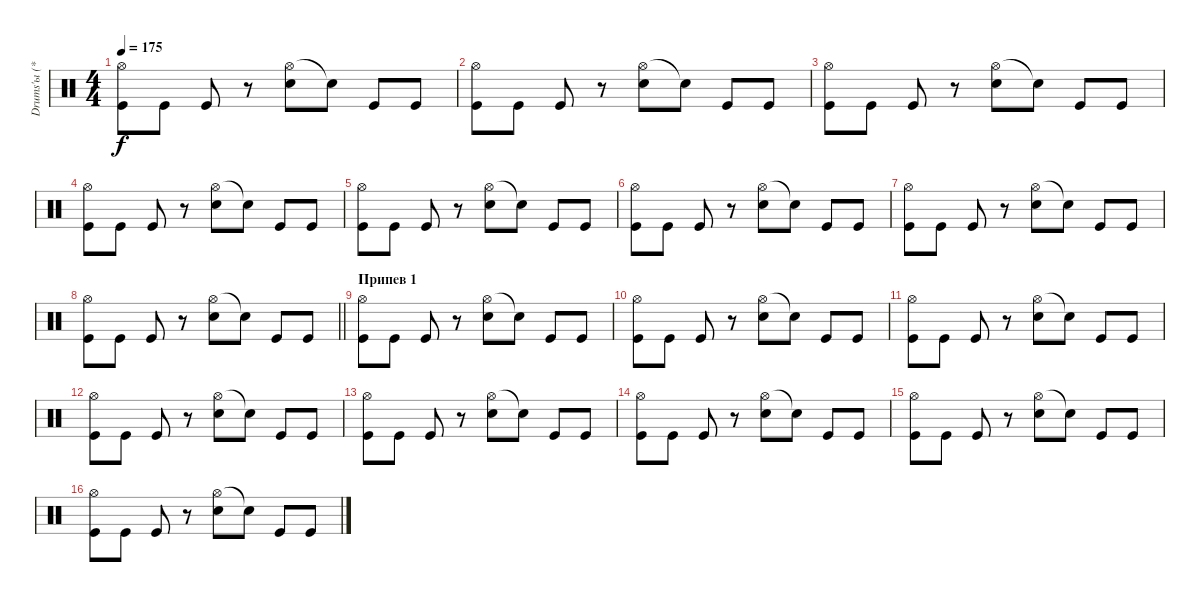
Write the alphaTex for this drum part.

\track ("Drums'ы (***)" "Drums'ы (*") {instrument percussion}
\staff {score}
\articulation defaults
\ts (4 4)
\tempo 175
\clef neutral
\ks c
("Hi-Hat (open)" "Kick (hit)").8{dy f} "Kick (hit)".8 "Kick (hit)".8 r.8 ("Hi-Hat (open)" "Electric Snare (hit)").8 "Snare (hit)"{t}.8 "Kick (hit)".8 "Kick (hit)".8 |
("Hi-Hat (open)" "Kick (hit)").8 "Kick (hit)".8 "Kick (hit)".8 r.8 ("Hi-Hat (open)" "Electric Snare (hit)").8 "Snare (hit)"{t}.8 "Kick (hit)".8 "Kick (hit)".8 |
("Hi-Hat (open)" "Kick (hit)").8 "Kick (hit)".8 "Kick (hit)".8 r.8 ("Hi-Hat (open)" "Electric Snare (hit)").8 "Snare (hit)"{t}.8 "Kick (hit)".8 "Kick (hit)".8 |
("Hi-Hat (open)" "Kick (hit)").8 "Kick (hit)".8 "Kick (hit)".8 r.8 ("Hi-Hat (open)" "Electric Snare (hit)").8 "Snare (hit)"{t}.8 "Kick (hit)".8 "Kick (hit)".8 |
("Hi-Hat (open)" "Kick (hit)").8 "Kick (hit)".8 "Kick (hit)".8 r.8 ("Hi-Hat (open)" "Electric Snare (hit)").8 "Snare (hit)"{t}.8 "Kick (hit)".8 "Kick (hit)".8 |
("Hi-Hat (open)" "Kick (hit)").8 "Kick (hit)".8 "Kick (hit)".8 r.8 ("Hi-Hat (open)" "Electric Snare (hit)").8 "Snare (hit)"{t}.8 "Kick (hit)".8 "Kick (hit)".8 |
("Hi-Hat (open)" "Kick (hit)").8 "Kick (hit)".8 "Kick (hit)".8 r.8 ("Hi-Hat (open)" "Electric Snare (hit)").8 "Snare (hit)"{t}.8 "Kick (hit)".8 "Kick (hit)".8 |
\barLineRight lightlight
("Hi-Hat (open)" "Kick (hit)").8 "Kick (hit)".8 "Kick (hit)".8 r.8 ("Hi-Hat (open)" "Electric Snare (hit)").8 "Snare (hit)"{t}.8 "Kick (hit)".8 "Kick (hit)".8 |
\section ("" "Припев 1")
("Hi-Hat (open)" "Kick (hit)").8 "Kick (hit)".8 "Kick (hit)".8 r.8 ("Hi-Hat (open)" "Electric Snare (hit)").8 "Snare (hit)"{t}.8 "Kick (hit)".8 "Kick (hit)".8 |
("Hi-Hat (open)" "Kick (hit)").8 "Kick (hit)".8 "Kick (hit)".8 r.8 ("Hi-Hat (open)" "Electric Snare (hit)").8 "Snare (hit)"{t}.8 "Kick (hit)".8 "Kick (hit)".8 |
("Hi-Hat (open)" "Kick (hit)").8 "Kick (hit)".8 "Kick (hit)".8 r.8 ("Hi-Hat (open)" "Electric Snare (hit)").8 "Snare (hit)"{t}.8 "Kick (hit)".8 "Kick (hit)".8 |
("Hi-Hat (open)" "Kick (hit)").8 "Kick (hit)".8 "Kick (hit)".8 r.8 ("Hi-Hat (open)" "Electric Snare (hit)").8 "Snare (hit)"{t}.8 "Kick (hit)".8 "Kick (hit)".8 |
("Hi-Hat (open)" "Kick (hit)").8 "Kick (hit)".8 "Kick (hit)".8 r.8 ("Hi-Hat (open)" "Electric Snare (hit)").8 "Snare (hit)"{t}.8 "Kick (hit)".8 "Kick (hit)".8 |
("Hi-Hat (open)" "Kick (hit)").8 "Kick (hit)".8 "Kick (hit)".8 r.8 ("Hi-Hat (open)" "Electric Snare (hit)").8 "Snare (hit)"{t}.8 "Kick (hit)".8 "Kick (hit)".8 |
("Hi-Hat (open)" "Kick (hit)").8 "Kick (hit)".8 "Kick (hit)".8 r.8 ("Hi-Hat (open)" "Electric Snare (hit)").8 "Snare (hit)"{t}.8 "Kick (hit)".8 "Kick (hit)".8 |
("Hi-Hat (open)" "Kick (hit)").8 "Kick (hit)".8 "Kick (hit)".8 r.8 ("Hi-Hat (open)" "Electric Snare (hit)").8 "Snare (hit)"{t}.8 "Kick (hit)".8 "Kick (hit)".8
